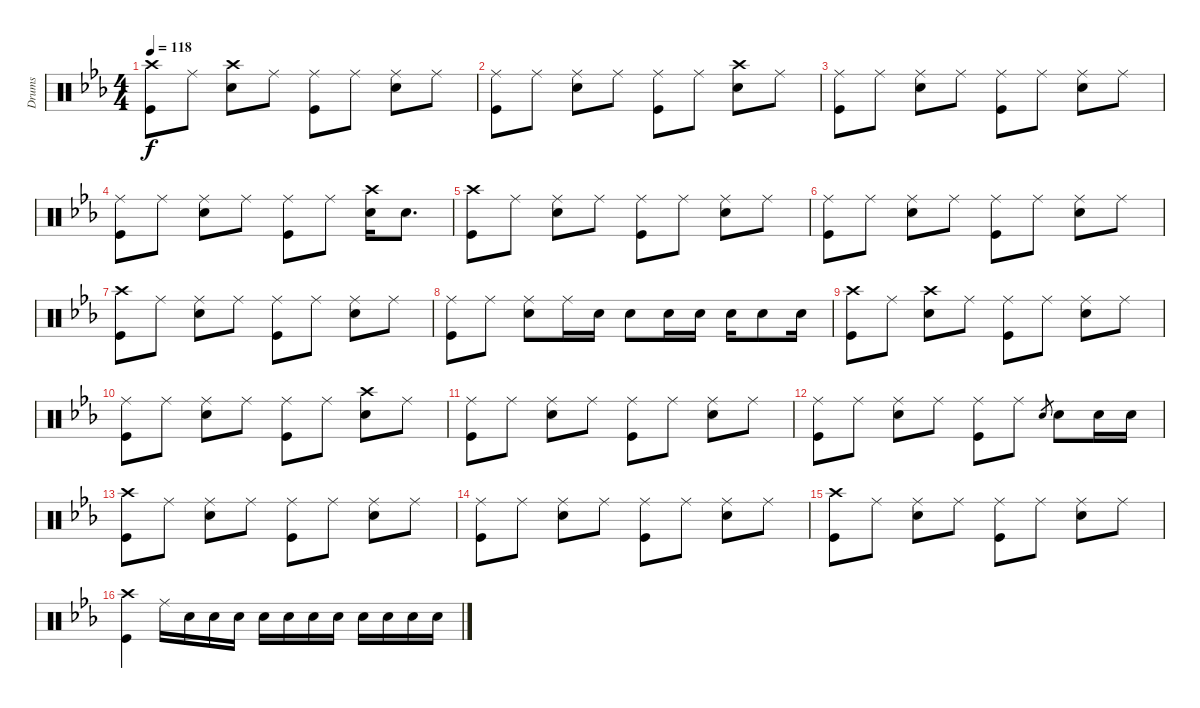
\track ("Drums" "Drums") {instrument percussion}
\staff {score}
\articulation defaults
\ts (4 4)
\tempo 118
\clef neutral
\ks cminor
("Crash high (hit)" "Kick (hit)").8{dy f} "Ride (middle)".8 ("Crash high (hit)" "Snare (hit) 2").8 "Ride (middle)".8 ("Ride (middle)" "Kick (hit)").8 "Ride (middle)".8 ("Snare (hit) 2" "Ride (middle)").8 "Ride (middle)".8 |
("Ride (middle)" "Kick (hit)").8 "Ride (middle)".8 ("Ride (middle)" "Snare (hit) 2").8 "Ride (middle)".8 ("Ride (middle)" "Kick (hit)").8 "Ride (middle)".8 ("Crash high (hit)" "Snare (hit) 2").8 "Ride (middle)".8 |
("Ride (middle)" "Kick (hit)").8 "Ride (middle)".8 ("Ride (middle)" "Snare (hit) 2").8 "Ride (middle)".8 ("Ride (middle)" "Kick (hit)").8 "Ride (middle)".8 ("Ride (middle)" "Snare (hit) 2").8 "Ride (middle)".8 |
("Ride (middle)" "Kick (hit)").8 "Ride (middle)".8 ("Ride (middle)" "Snare (hit) 2").8 "Ride (middle)".8 ("Ride (middle)" "Kick (hit)").8 "Ride (middle)".8 ("Crash high (hit)" "Snare (hit) 2").16 "Snare (hit) 2".8{d} |
("Crash high (hit)" "Kick (hit)").8 "Ride (middle)".8 ("Ride (middle)" "Snare (hit) 2").8 "Ride (middle)".8 ("Ride (middle)" "Kick (hit)").8 "Ride (middle)".8 ("Snare (hit) 2" "Ride (middle)").8 "Ride (middle)".8 |
("Ride (middle)" "Kick (hit)").8 "Ride (middle)".8 ("Ride (middle)" "Snare (hit) 2").8 "Ride (middle)".8 ("Ride (middle)" "Kick (hit)").8 "Ride (middle)".8 ("Ride (middle)" "Snare (hit) 2").8 "Ride (middle)".8 |
("Crash high (hit)" "Kick (hit)").8 "Ride (middle)".8 ("Ride (middle)" "Snare (hit) 2").8 "Ride (middle)".8 ("Ride (middle)" "Kick (hit)").8 "Ride (middle)".8 ("Snare (hit) 2" "Ride (middle)").8 "Ride (middle)".8 |
("Ride (middle)" "Kick (hit)").8 "Ride (middle)".8 ("Ride (middle)" "Snare (hit) 2").8 "Ride (middle)".16 "Snare (hit) 2".16 "Snare (hit) 2".8 "Snare (hit) 2".16 "Snare (hit) 2".16 "Snare (hit) 2".16 "Snare (hit) 2".8 "Snare (hit) 2".16 |
("Crash high (hit)" "Kick (hit)").8 "Ride (middle)".8 ("Crash high (hit)" "Snare (hit) 2").8 "Ride (middle)".8 ("Ride (middle)" "Kick (hit)").8 "Ride (middle)".8 ("Snare (hit) 2" "Ride (middle)").8 "Ride (middle)".8 |
("Ride (middle)" "Kick (hit)").8 "Ride (middle)".8 ("Ride (middle)" "Snare (hit) 2").8 "Ride (middle)".8 ("Ride (middle)" "Kick (hit)").8 "Ride (middle)".8 ("Crash high (hit)" "Snare (hit) 2").8 "Ride (middle)".8 |
("Ride (middle)" "Kick (hit)").8 "Ride (middle)".8 ("Ride (middle)" "Snare (hit) 2").8 "Ride (middle)".8 ("Ride (middle)" "Kick (hit)").8 "Ride (middle)".8 ("Ride (middle)" "Snare (hit) 2").8 "Ride (middle)".8 |
("Ride (middle)" "Kick (hit)").8 "Ride (middle)".8 ("Ride (middle)" "Snare (hit) 2").8 "Ride (middle)".8 ("Ride (middle)" "Kick (hit)").8 "Ride (middle)".8 "Snare (hit) 2".8{gr} "Snare (hit) 2".8 "Snare (hit) 2".16 "Snare (hit) 2".16 |
("Crash high (hit)" "Kick (hit)").8 "Ride (middle)".8 ("Ride (middle)" "Snare (hit) 2").8 "Ride (middle)".8 ("Ride (middle)" "Kick (hit)").8 "Ride (middle)".8 ("Snare (hit) 2" "Ride (middle)").8 "Ride (middle)".8 |
("Ride (middle)" "Kick (hit)").8 "Ride (middle)".8 ("Ride (middle)" "Snare (hit) 2").8 "Ride (middle)".8 ("Ride (middle)" "Kick (hit)").8 "Ride (middle)".8 ("Ride (middle)" "Snare (hit) 2").8 "Ride (middle)".8 |
("Crash high (hit)" "Kick (hit)").8 "Ride (middle)".8 ("Ride (middle)" "Snare (hit) 2").8 "Ride (middle)".8 ("Ride (middle)" "Kick (hit)").8 "Ride (middle)".8 ("Snare (hit) 2" "Ride (middle)").8 "Ride (middle)".8 |
("Crash high (hit)" "Kick (hit)").4 "Ride (middle)".16 "Snare (hit) 2".16 "Snare (hit) 2".16 "Snare (hit) 2".16 "Snare (hit) 2".16 "Snare (hit) 2".16 "Snare (hit) 2".16 "Snare (hit) 2".16 "Snare (hit) 2".16 "Snare (hit) 2".16 "Snare (hit) 2".16 "Snare (hit) 2".16
